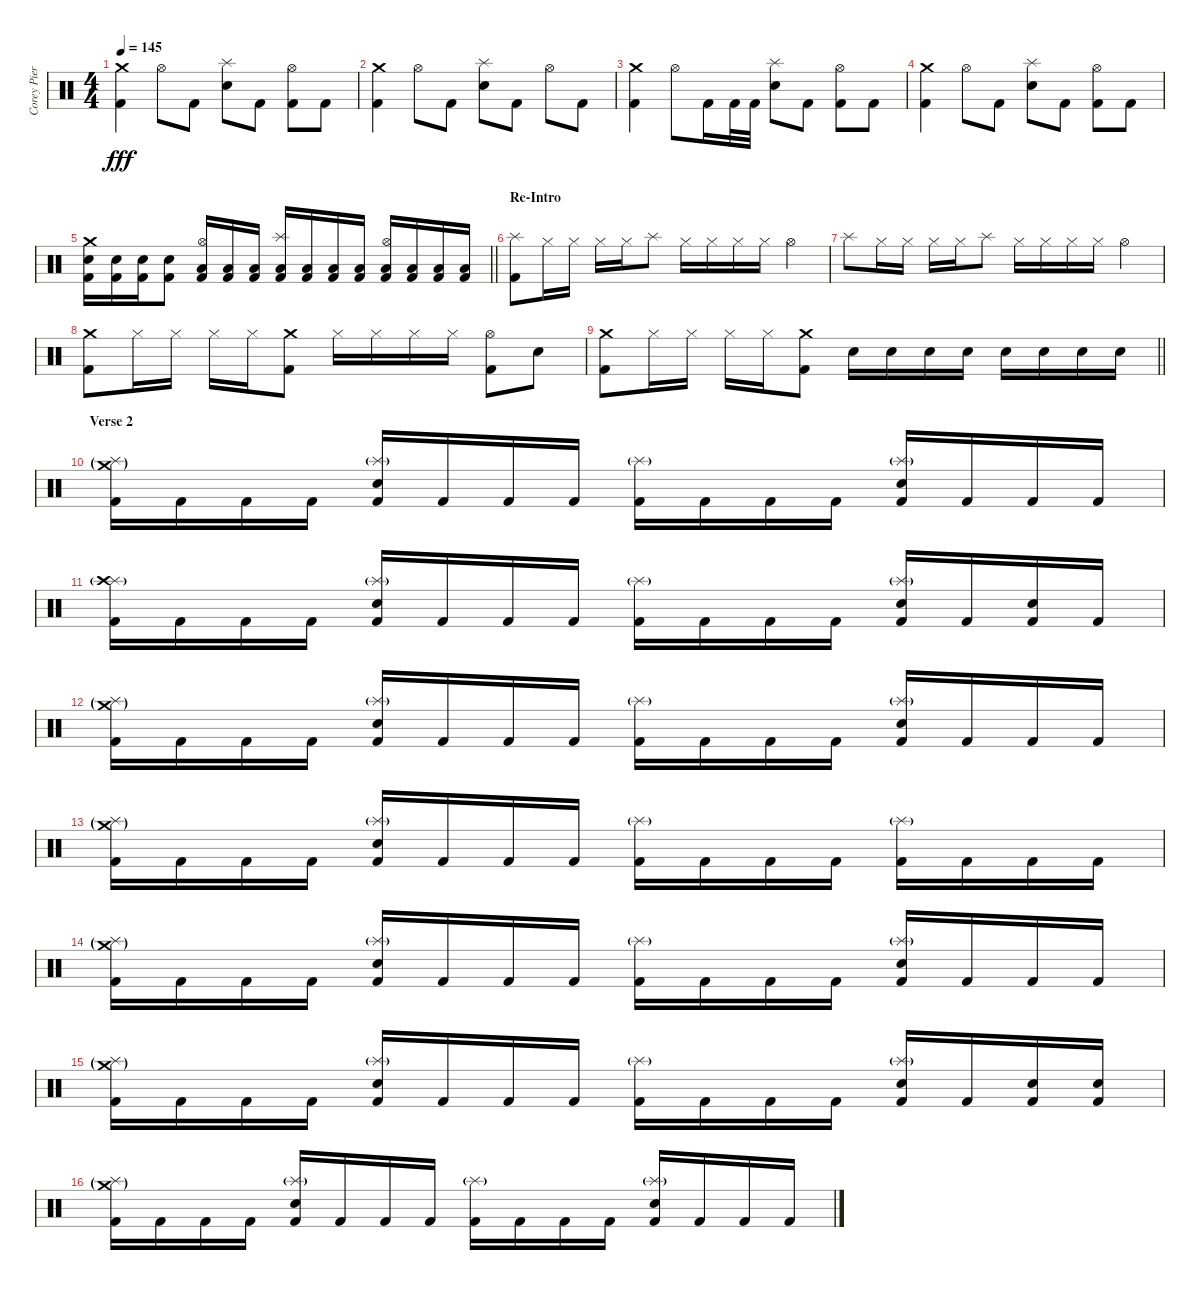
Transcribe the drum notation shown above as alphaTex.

\track ("Corey Pierce" "Corey Pier") {instrument percussion}
\staff {score}
\articulation defaults
\ts (4 4)
\tempo 145
\clef neutral
\ks c
("Crash medium (hit)" "Kick (hit) 2").4{dy fff} "Hi-Hat (open)".8 "Kick (hit) 2".8 ("Splash (hit)" "Electric Snare (hit)").8 "Kick (hit) 2".8 ("Hi-Hat (open)" "Kick (hit) 2").8 "Kick (hit) 2".8 |
("Crash medium (hit)" "Kick (hit) 2").4 "Hi-Hat (open)".8 "Kick (hit) 2".8 ("Splash (hit)" "Electric Snare (hit)").8 "Kick (hit) 2".8 "Hi-Hat (open)".8 "Kick (hit) 2".8 |
("Crash medium (hit)" "Kick (hit) 2").4 "Hi-Hat (open)".8 "Kick (hit) 2".16 "Kick (hit) 2".32 "Kick (hit) 2".32 ("Splash (hit)" "Electric Snare (hit)").8 "Kick (hit) 2".8 ("Hi-Hat (open)" "Kick (hit) 2").8 "Kick (hit) 2".8 |
("Crash medium (hit)" "Kick (hit) 2").4 "Hi-Hat (open)".8 "Kick (hit) 2".8 ("Splash (hit)" "Electric Snare (hit)").8 "Kick (hit) 2".8 ("Hi-Hat (open)" "Kick (hit) 2").8 "Kick (hit) 2".8 |
\barLineRight lightlight
("Crash medium (hit)" "Electric Snare (hit)" "Kick (hit) 2").16 ("Electric Snare (hit)" "Kick (hit) 2").16 ("Electric Snare (hit)" "Kick (hit) 2").16 ("Electric Snare (hit)" "Kick (hit) 2").8 ("Hi-Hat (open)" "Low Tom (hit)" "Kick (hit) 2").16 ("Low Tom (hit)" "Kick (hit) 2").16 ("Low Tom (hit)" "Kick (hit) 2").16 ("Splash (hit)" "Low Tom (hit)" "Kick (hit) 2").16 ("Low Tom (hit)" "Kick (hit) 2").16 ("Low Tom (hit)" "Kick (hit) 2").16 ("Low Tom (hit)" "Kick (hit) 2").16 ("Hi-Hat (open)" "Low Tom (hit)" "Kick (hit) 2").16 ("Low Tom (hit)" "Kick (hit) 2").16 ("Low Tom (hit)" "Kick (hit) 2").16 ("Low Tom (hit)" "Kick (hit) 2").16 |
\section ("" "Re-Intro")
("Splash (hit)" "Kick (hit) 2").8 "Hi-Hat (closed)".16 "Hi-Hat (closed)".16 "Hi-Hat (closed)".16 "Hi-Hat (closed)".16 "Splash (hit)".8 "Hi-Hat (closed)".16 "Hi-Hat (closed)".16 "Hi-Hat (closed)".16 "Hi-Hat (closed)".16 "Hi-Hat (open)".4 |
"Splash (hit)".8 "Hi-Hat (closed)".16 "Hi-Hat (closed)".16 "Hi-Hat (closed)".16 "Hi-Hat (closed)".16 "Splash (hit)".8 "Hi-Hat (closed)".16 "Hi-Hat (closed)".16 "Hi-Hat (closed)".16 "Hi-Hat (closed)".16 "Hi-Hat (open)".4 |
("Crash medium (hit)" "Kick (hit) 2").8 "Hi-Hat (closed)".16 "Hi-Hat (closed)".16 "Hi-Hat (closed)".16 "Hi-Hat (closed)".16 ("Crash medium (hit)" "Kick (hit) 2").8 "Hi-Hat (closed)".16 "Hi-Hat (closed)".16 "Hi-Hat (closed)".16 "Hi-Hat (closed)".16 ("Hi-Hat (open)" "Kick (hit) 2").8 "Electric Snare (hit)".8 |
\barLineRight lightlight
("Crash medium (hit)" "Kick (hit) 2").8 "Hi-Hat (closed)".16 "Hi-Hat (closed)".16 "Hi-Hat (closed)".16 "Hi-Hat (closed)".16 ("Crash medium (hit)" "Kick (hit) 2").8 "Electric Snare (hit)".16 "Electric Snare (hit)".16 "Electric Snare (hit)".16 "Electric Snare (hit)".16 "Electric Snare (hit)".16 "Electric Snare (hit)".16 "Electric Snare (hit)".16 "Electric Snare (hit)".16 |
\section ("" "Verse 2")
("Splash (hit)"{g} "Crash medium (hit)"{g} "Kick (hit) 2").16 "Kick (hit) 2".16 "Kick (hit) 2".16 "Kick (hit) 2".16 ("Splash (hit)"{g} "Electric Snare (hit)" "Kick (hit) 2").16 "Kick (hit) 2".16 "Kick (hit) 2".16 "Kick (hit) 2".16 ("Splash (hit)"{g} "Kick (hit) 2").16 "Kick (hit) 2".16 "Kick (hit) 2".16 "Kick (hit) 2".16 ("Splash (hit)"{g} "Electric Snare (hit)" "Kick (hit) 2").16 "Kick (hit) 2".16 "Kick (hit) 2".16 "Kick (hit) 2".16 |
("Splash (hit)"{g} "Crash high (hit)"{g} "Kick (hit) 2").16 "Kick (hit) 2".16 "Kick (hit) 2".16 "Kick (hit) 2".16 ("Splash (hit)"{g} "Electric Snare (hit)" "Kick (hit) 2").16 "Kick (hit) 2".16 "Kick (hit) 2".16 "Kick (hit) 2".16 ("Splash (hit)"{g} "Kick (hit) 2").16 "Kick (hit) 2".16 "Kick (hit) 2".16 "Kick (hit) 2".16 ("Splash (hit)"{g} "Electric Snare (hit)" "Kick (hit) 2").16 "Kick (hit) 2".16 ("Electric Snare (hit)" "Kick (hit) 2").16 "Kick (hit) 2".16 |
("Splash (hit)"{g} "Crash medium (hit)"{g} "Kick (hit) 2").16 "Kick (hit) 2".16 "Kick (hit) 2".16 "Kick (hit) 2".16 ("Splash (hit)"{g} "Electric Snare (hit)" "Kick (hit) 2").16 "Kick (hit) 2".16 "Kick (hit) 2".16 "Kick (hit) 2".16 ("Splash (hit)"{g} "Kick (hit) 2").16 "Kick (hit) 2".16 "Kick (hit) 2".16 "Kick (hit) 2".16 ("Splash (hit)"{g} "Electric Snare (hit)" "Kick (hit) 2").16 "Kick (hit) 2".16 "Kick (hit) 2".16 "Kick (hit) 2".16 |
("Splash (hit)"{g} "Crash medium (hit)"{g} "Kick (hit) 2").16 "Kick (hit) 2".16 "Kick (hit) 2".16 "Kick (hit) 2".16 ("Splash (hit)"{g} "Electric Snare (hit)" "Kick (hit) 2").16 "Kick (hit) 2".16 "Kick (hit) 2".16 "Kick (hit) 2".16 ("Splash (hit)"{g} "Kick (hit) 2").16 "Kick (hit) 2".16 "Kick (hit) 2".16 "Kick (hit) 2".16 ("Splash (hit)"{g} "Kick (hit) 2").16 "Kick (hit) 2".16 "Kick (hit) 2".16 "Kick (hit) 2".16 |
("Splash (hit)"{g} "Crash medium (hit)"{g} "Kick (hit) 2").16 "Kick (hit) 2".16 "Kick (hit) 2".16 "Kick (hit) 2".16 ("Splash (hit)"{g} "Electric Snare (hit)" "Kick (hit) 2").16 "Kick (hit) 2".16 "Kick (hit) 2".16 "Kick (hit) 2".16 ("Splash (hit)"{g} "Kick (hit) 2").16 "Kick (hit) 2".16 "Kick (hit) 2".16 "Kick (hit) 2".16 ("Splash (hit)"{g} "Electric Snare (hit)" "Kick (hit) 2").16 "Kick (hit) 2".16 "Kick (hit) 2".16 "Kick (hit) 2".16 |
("Splash (hit)"{g} "Crash medium (hit)"{g} "Kick (hit) 2").16 "Kick (hit) 2".16 "Kick (hit) 2".16 "Kick (hit) 2".16 ("Splash (hit)"{g} "Electric Snare (hit)" "Kick (hit) 2").16 "Kick (hit) 2".16 "Kick (hit) 2".16 "Kick (hit) 2".16 ("Splash (hit)"{g} "Kick (hit) 2").16 "Kick (hit) 2".16 "Kick (hit) 2".16 "Kick (hit) 2".16 ("Splash (hit)"{g} "Electric Snare (hit)" "Kick (hit) 2").16 "Kick (hit) 2".16 ("Electric Snare (hit)" "Kick (hit) 2").16 ("Electric Snare (hit)" "Kick (hit) 2").16 |
("Splash (hit)"{g} "Crash medium (hit)"{g} "Kick (hit) 2").16 "Kick (hit) 2".16 "Kick (hit) 2".16 "Kick (hit) 2".16 ("Splash (hit)"{g} "Electric Snare (hit)" "Kick (hit) 2").16 "Kick (hit) 2".16 "Kick (hit) 2".16 "Kick (hit) 2".16 ("Splash (hit)"{g} "Kick (hit) 2").16 "Kick (hit) 2".16 "Kick (hit) 2".16 "Kick (hit) 2".16 ("Splash (hit)"{g} "Electric Snare (hit)" "Kick (hit) 2").16 "Kick (hit) 2".16 "Kick (hit) 2".16 "Kick (hit) 2".16
